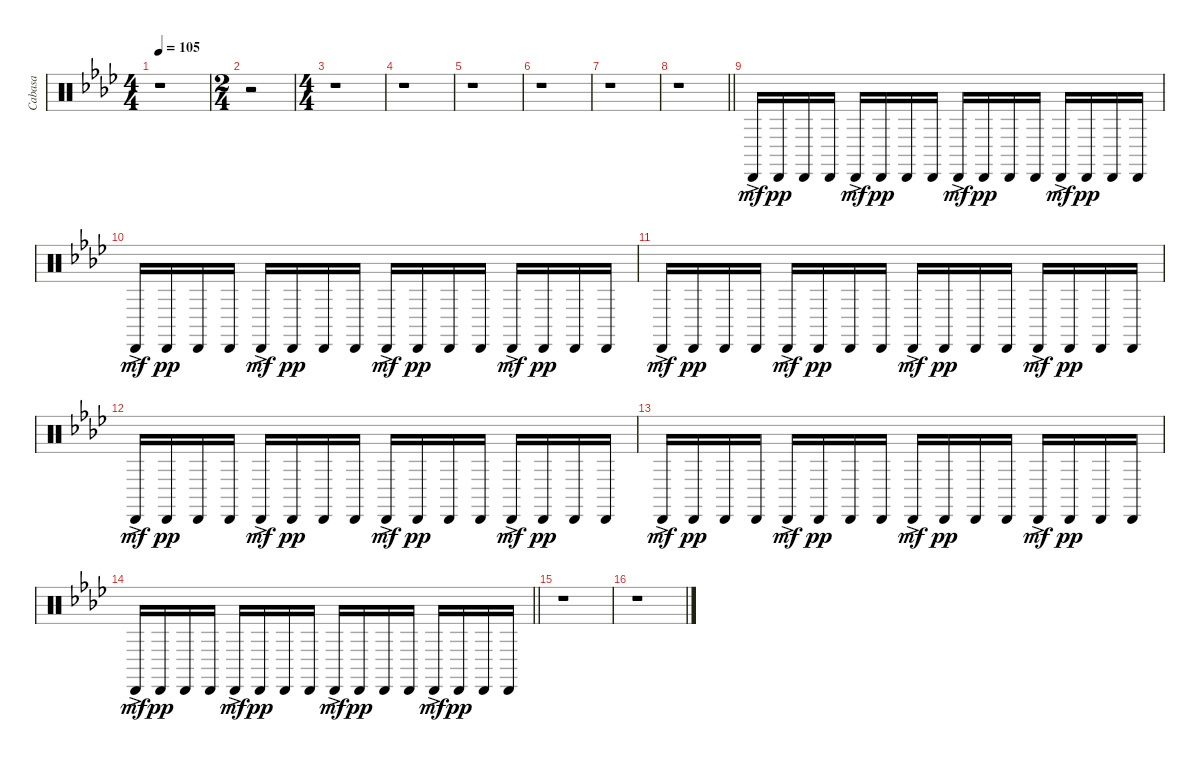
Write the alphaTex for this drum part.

\track ("Cabasa" "Cabasa") {instrument percussion}
\staff {score}
\articulation defaults
\ts (4 4)
\tempo 105
\clef neutral
\ks ab
r.1{dy pp} |
\ts (2 4)
r.2 |
\ts (4 4)
r.1 |
r.1 |
r.1 |
r.1 |
r.1 |
\barLineRight lightlight
r.1 |
"Cabasa (hit)"{ac}.16{dy mf} "Cabasa (hit)".16{dy pp} "Cabasa (hit)".16 "Cabasa (hit)".16 "Cabasa (hit)"{ac}.16{dy mf} "Cabasa (hit)".16{dy pp} "Cabasa (hit)".16 "Cabasa (hit)".16 "Cabasa (hit)"{ac}.16{dy mf} "Cabasa (hit)".16{dy pp} "Cabasa (hit)".16 "Cabasa (hit)".16 "Cabasa (hit)"{ac}.16{dy mf} "Cabasa (hit)".16{dy pp} "Cabasa (hit)".16 "Cabasa (hit)".16 |
"Cabasa (hit)"{ac}.16{dy mf} "Cabasa (hit)".16{dy pp} "Cabasa (hit)".16 "Cabasa (hit)".16 "Cabasa (hit)"{ac}.16{dy mf} "Cabasa (hit)".16{dy pp} "Cabasa (hit)".16 "Cabasa (hit)".16 "Cabasa (hit)"{ac}.16{dy mf} "Cabasa (hit)".16{dy pp} "Cabasa (hit)".16 "Cabasa (hit)".16 "Cabasa (hit)"{ac}.16{dy mf} "Cabasa (hit)".16{dy pp} "Cabasa (hit)".16 "Cabasa (hit)".16 |
"Cabasa (hit)"{ac}.16{dy mf} "Cabasa (hit)".16{dy pp} "Cabasa (hit)".16 "Cabasa (hit)".16 "Cabasa (hit)"{ac}.16{dy mf} "Cabasa (hit)".16{dy pp} "Cabasa (hit)".16 "Cabasa (hit)".16 "Cabasa (hit)"{ac}.16{dy mf} "Cabasa (hit)".16{dy pp} "Cabasa (hit)".16 "Cabasa (hit)".16 "Cabasa (hit)"{ac}.16{dy mf} "Cabasa (hit)".16{dy pp} "Cabasa (hit)".16 "Cabasa (hit)".16 |
"Cabasa (hit)"{ac}.16{dy mf} "Cabasa (hit)".16{dy pp} "Cabasa (hit)".16 "Cabasa (hit)".16 "Cabasa (hit)"{ac}.16{dy mf} "Cabasa (hit)".16{dy pp} "Cabasa (hit)".16 "Cabasa (hit)".16 "Cabasa (hit)"{ac}.16{dy mf} "Cabasa (hit)".16{dy pp} "Cabasa (hit)".16 "Cabasa (hit)".16 "Cabasa (hit)"{ac}.16{dy mf} "Cabasa (hit)".16{dy pp} "Cabasa (hit)".16 "Cabasa (hit)".16 |
"Cabasa (hit)"{ac}.16{dy mf} "Cabasa (hit)".16{dy pp} "Cabasa (hit)".16 "Cabasa (hit)".16 "Cabasa (hit)"{ac}.16{dy mf} "Cabasa (hit)".16{dy pp} "Cabasa (hit)".16 "Cabasa (hit)".16 "Cabasa (hit)"{ac}.16{dy mf} "Cabasa (hit)".16{dy pp} "Cabasa (hit)".16 "Cabasa (hit)".16 "Cabasa (hit)"{ac}.16{dy mf} "Cabasa (hit)".16{dy pp} "Cabasa (hit)".16 "Cabasa (hit)".16 |
\barLineRight lightlight "Cabasa (hit)"{ac}.16{dy mf} "Cabasa (hit)".16{dy pp} "Cabasa (hit)".16 "Cabasa (hit)".16 "Cabasa (hit)"{ac}.16{dy mf} "Cabasa (hit)".16{dy pp} "Cabasa (hit)".16 "Cabasa (hit)".16 "Cabasa (hit)"{ac}.16{dy mf} "Cabasa (hit)".16{dy pp} "Cabasa (hit)".16 "Cabasa (hit)".16 "Cabasa (hit)"{ac}.16{dy mf} "Cabasa (hit)".16{dy pp} "Cabasa (hit)".16 "Cabasa (hit)".16
|
r.1 |
r.1
